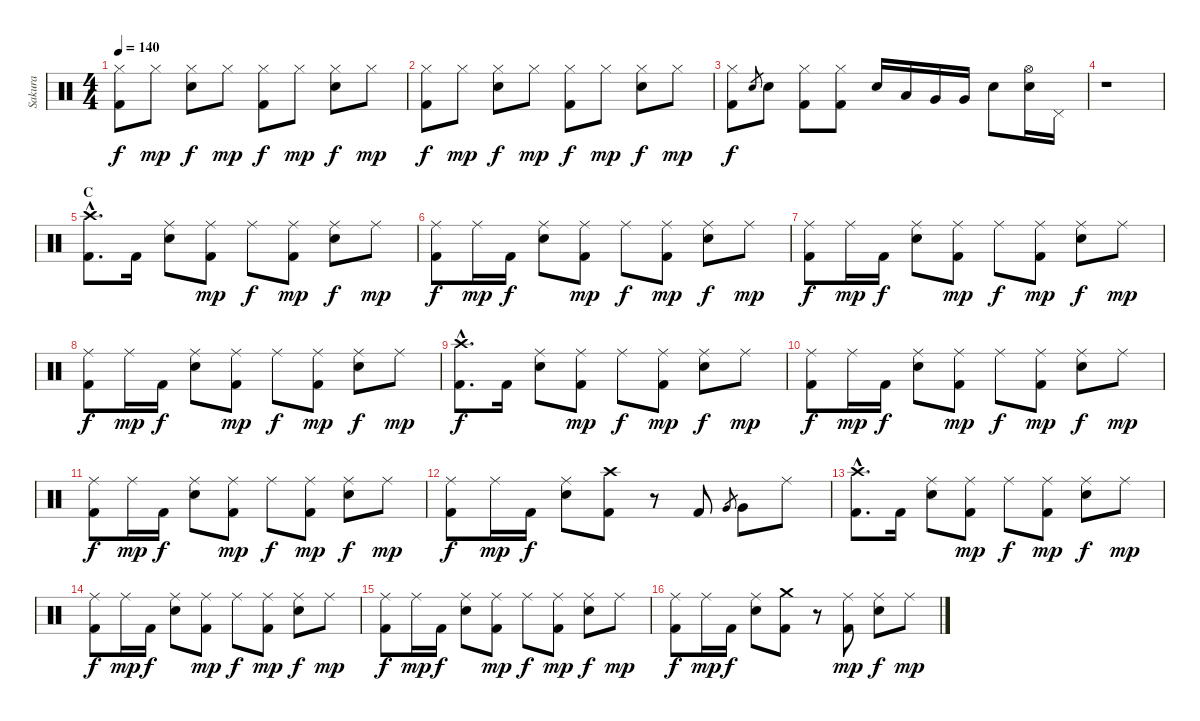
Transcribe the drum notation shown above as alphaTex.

\track ("Sakura" "Sakura") {instrument percussion}
\staff {score}
\articulation defaults
\ts (4 4)
\tempo 140
\clef neutral
\ks c
("Hi-Hat (closed)" "Kick (hit) 2").8{dy f} "Hi-Hat (closed)".8{dy mp} ("Hi-Hat (closed)" "Electric Snare (hit)").8{dy f} "Hi-Hat (closed)".8{dy mp} ("Hi-Hat (closed)" "Kick (hit) 2").8{dy f} "Hi-Hat (closed)".8{dy mp} ("Hi-Hat (closed)" "Electric Snare (hit)").8{dy f} "Hi-Hat (closed)".8{dy mp} |
("Hi-Hat (closed)" "Kick (hit) 2").8{dy f} "Hi-Hat (closed)".8{dy mp} ("Hi-Hat (closed)" "Electric Snare (hit)").8{dy f} "Hi-Hat (closed)".8{dy mp} ("Hi-Hat (closed)" "Kick (hit) 2").8{dy f} "Hi-Hat (closed)".8{dy mp} ("Hi-Hat (closed)" "Electric Snare (hit)").8{dy f} "Hi-Hat (closed)".8{dy mp} |
("Hi-Hat (closed)" "Kick (hit) 2").8{dy f} "Electric Snare (hit)".8{gr} "Electric Snare (hit)".8 ("Hi-Hat (closed)" "Kick (hit) 2").8 ("Hi-Hat (closed)" "Kick (hit) 2").8 "Electric Snare (hit)".16 "Low Tom (hit)".16 "Very Low Tom (hit)".16 "Very Low Tom (hit)".16 "Electric Snare (hit)".8 ("Hi-Hat (open)" "Electric Snare (hit)").16 "Pedal Hi-Hat (hit)".16 |
r.1 |
\section ("" "C")
("Crash high (hit)"{hac} "Kick (hit) 2"{hac}).8{d} "Kick (hit) 2".16 ("Ride (middle)" "Electric Snare (hit)").8 ("Ride (middle)" "Kick (hit) 2").8{dy mp} "Ride (middle)".8{dy f} ("Ride (middle)" "Kick (hit) 2").8{dy mp} ("Ride (middle)" "Electric Snare (hit)").8{dy f} "Ride (middle)".8{dy mp} |
("Ride (middle)" "Kick (hit) 2").8{dy f} "Ride (middle)".16{dy mp} "Kick (hit) 2".16{dy f} ("Ride (middle)" "Electric Snare (hit)").8 ("Ride (middle)" "Kick (hit) 2").8{dy mp} "Ride (middle)".8{dy f} ("Ride (middle)" "Kick (hit) 2").8{dy mp} ("Ride (middle)" "Electric Snare (hit)").8{dy f} "Ride (middle)".8{dy mp} |
("Ride (middle)" "Kick (hit) 2").8{dy f} "Ride (middle)".16{dy mp} "Kick (hit) 2".16{dy f} ("Ride (middle)" "Electric Snare (hit)").8 ("Ride (middle)" "Kick (hit) 2").8{dy mp} "Ride (middle)".8{dy f} ("Ride (middle)" "Kick (hit) 2").8{dy mp} ("Ride (middle)" "Electric Snare (hit)").8{dy f} "Ride (middle)".8{dy mp} |
("Ride (middle)" "Kick (hit) 2").8{dy f} "Ride (middle)".16{dy mp} "Kick (hit) 2".16{dy f} ("Ride (middle)" "Electric Snare (hit)").8 ("Ride (middle)" "Kick (hit) 2").8{dy mp} "Ride (middle)".8{dy f} ("Ride (middle)" "Kick (hit) 2").8{dy mp} ("Ride (middle)" "Electric Snare (hit)").8{dy f} "Ride (middle)".8{dy mp} |
("Crash high (hit)"{hac} "Kick (hit) 2"{hac}).8{d dy f} "Kick (hit) 2".16 ("Ride (middle)" "Electric Snare (hit)").8 ("Ride (middle)" "Kick (hit) 2").8{dy mp} "Ride (middle)".8{dy f} ("Ride (middle)" "Kick (hit) 2").8{dy mp} ("Ride (middle)" "Electric Snare (hit)").8{dy f} "Ride (middle)".8{dy mp} |
("Ride (middle)" "Kick (hit) 2").8{dy f} "Ride (middle)".16{dy mp} "Kick (hit) 2".16{dy f} ("Ride (middle)" "Electric Snare (hit)").8 ("Ride (middle)" "Kick (hit) 2").8{dy mp} "Ride (middle)".8{dy f} ("Ride (middle)" "Kick (hit) 2").8{dy mp} ("Ride (middle)" "Electric Snare (hit)").8{dy f} "Ride (middle)".8{dy mp} |
("Ride (middle)" "Kick (hit) 2").8{dy f} "Ride (middle)".16{dy mp} "Kick (hit) 2".16{dy f} ("Ride (middle)" "Electric Snare (hit)").8 ("Ride (middle)" "Kick (hit) 2").8{dy mp} "Ride (middle)".8{dy f} ("Ride (middle)" "Kick (hit) 2").8{dy mp} ("Ride (middle)" "Electric Snare (hit)").8{dy f} "Ride (middle)".8{dy mp} |
("Ride (middle)" "Kick (hit) 2").8{dy f} "Ride (middle)".16{dy mp} "Kick (hit) 2".16{dy f} ("Ride (middle)" "Electric Snare (hit)").8 ("Crash high (hit)" "Kick (hit) 2").8 r.8 "Kick (hit) 2".8 "Very Low Tom (hit)".8{gr} "Very Low Tom (hit)".8 "Ride (middle)".8 |
("Crash high (hit)"{hac} "Kick (hit) 2"{hac}).8{d} "Kick (hit) 2".16 ("Ride (middle)" "Electric Snare (hit)").8 ("Ride (middle)" "Kick (hit) 2").8{dy mp} "Ride (middle)".8{dy f} ("Ride (middle)" "Kick (hit) 2").8{dy mp} ("Ride (middle)" "Electric Snare (hit)").8{dy f} "Ride (middle)".8{dy mp} |
("Ride (middle)" "Kick (hit) 2").8{dy f} "Ride (middle)".16{dy mp} "Kick (hit) 2".16{dy f} ("Ride (middle)" "Electric Snare (hit)").8 ("Ride (middle)" "Kick (hit) 2").8{dy mp} "Ride (middle)".8{dy f} ("Ride (middle)" "Kick (hit) 2").8{dy mp} ("Ride (middle)" "Electric Snare (hit)").8{dy f} "Ride (middle)".8{dy mp} |
("Ride (middle)" "Kick (hit) 2").8{dy f} "Ride (middle)".16{dy mp} "Kick (hit) 2".16{dy f} ("Ride (middle)" "Electric Snare (hit)").8 ("Ride (middle)" "Kick (hit) 2").8{dy mp} "Ride (middle)".8{dy f} ("Ride (middle)" "Kick (hit) 2").8{dy mp} ("Ride (middle)" "Electric Snare (hit)").8{dy f} "Ride (middle)".8{dy mp} |
("Ride (middle)" "Kick (hit) 2").8{dy f} "Ride (middle)".16{dy mp} "Kick (hit) 2".16{dy f} ("Ride (middle)" "Electric Snare (hit)").8 ("Crash medium (hit)" "Kick (hit) 2").8 r.8 ("Ride (middle)" "Kick (hit) 2").8{dy mp} ("Ride (middle)" "Electric Snare (hit)").8{dy f} "Ride (middle)".8{dy mp}
